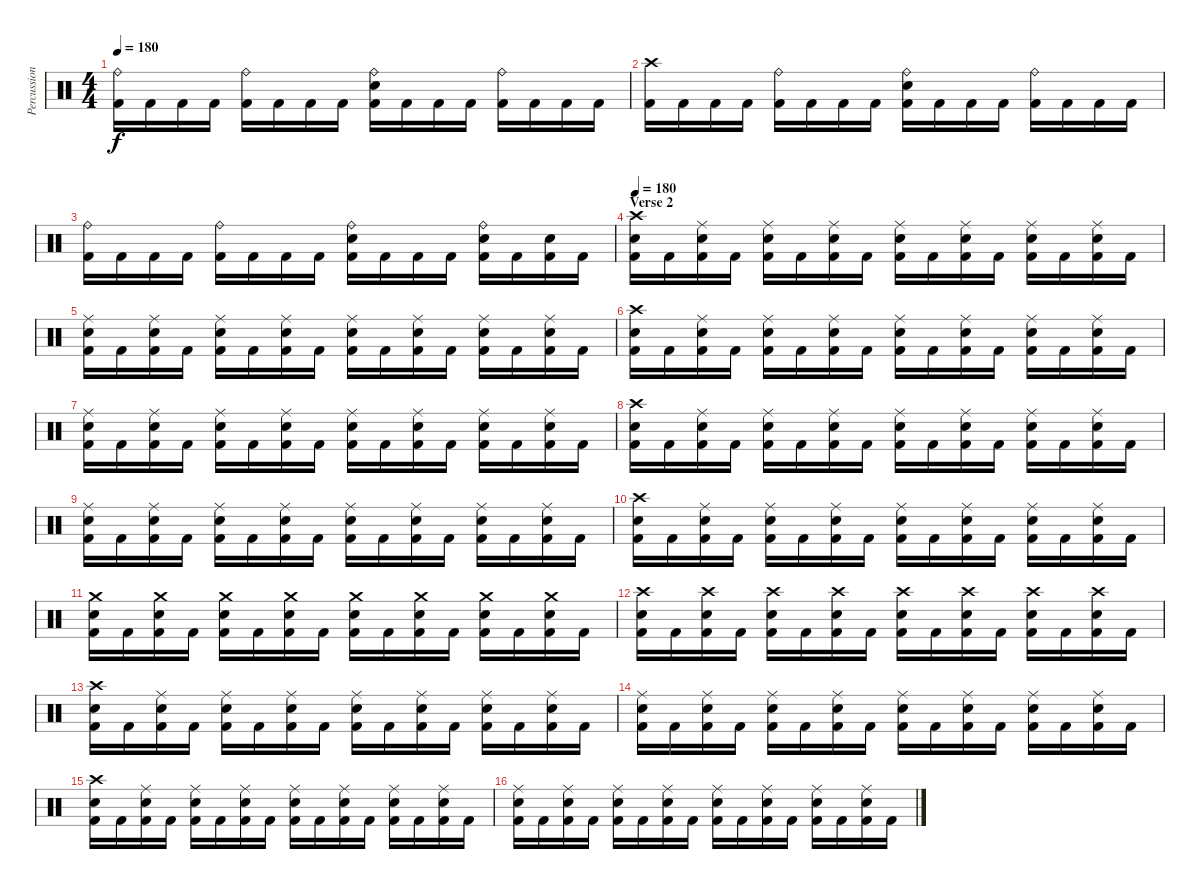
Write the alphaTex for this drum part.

\track ("Percussion" "Percussion") {instrument percussion}
\staff {score}
\articulation defaults
\ts (4 4)
\tempo 180
\clef neutral
\ks c
("Ride (bell)" "Kick (hit) 2").16{dy f} "Kick (hit) 2".16 "Kick (hit) 2".16 "Kick (hit) 2".16 ("Ride (bell)" "Kick (hit) 2").16 "Kick (hit) 2".16 "Kick (hit) 2".16 "Kick (hit) 2".16 ("Ride (bell)" "Snare (hit) 2" "Kick (hit) 2").16 "Kick (hit) 2".16 "Kick (hit) 2".16 "Kick (hit) 2".16 ("Ride (bell)" "Kick (hit) 2").16 "Kick (hit) 2".16 "Kick (hit) 2".16 "Kick (hit) 2".16 |
("Crash high (hit)" "Kick (hit) 2").16 "Kick (hit) 2".16 "Kick (hit) 2".16 "Kick (hit) 2".16 ("Ride (bell)" "Kick (hit) 2").16 "Kick (hit) 2".16 "Kick (hit) 2".16 "Kick (hit) 2".16 ("Ride (bell)" "Snare (hit) 2" "Kick (hit) 2").16 "Kick (hit) 2".16 "Kick (hit) 2".16 "Kick (hit) 2".16 ("Ride (bell)" "Kick (hit) 2").16 "Kick (hit) 2".16 "Kick (hit) 2".16 "Kick (hit) 2".16 |
("Ride (bell)" "Kick (hit) 2").16 "Kick (hit) 2".16 "Kick (hit) 2".16 "Kick (hit) 2".16 ("Ride (bell)" "Kick (hit) 2").16 "Kick (hit) 2".16 "Kick (hit) 2".16 "Kick (hit) 2".16 ("Ride (bell)" "Snare (hit) 2" "Kick (hit) 2").16 "Kick (hit) 2".16 "Kick (hit) 2".16 "Kick (hit) 2".16 ("Ride (bell)" "Snare (hit) 2" "Kick (hit) 2").16 "Kick (hit) 2".16 ("Snare (hit) 2" "Kick (hit) 2").16 "Kick (hit) 2".16 |
\section ("" "Verse 2")
\tempo 180
("Crash high (hit)" "Snare (hit) 2" "Kick (hit) 2").16 "Kick (hit) 2".16 ("Ride (middle)" "Snare (hit) 2" "Kick (hit) 2").16 "Kick (hit) 2".16 ("Ride (middle)" "Snare (hit) 2" "Kick (hit) 2").16 "Kick (hit) 2".16 ("Ride (middle)" "Snare (hit) 2" "Kick (hit) 2").16 "Kick (hit) 2".16 ("Ride (middle)" "Snare (hit) 2" "Kick (hit) 2").16 "Kick (hit) 2".16 ("Ride (middle)" "Snare (hit) 2" "Kick (hit) 2").16 "Kick (hit) 2".16 ("Ride (middle)" "Snare (hit) 2" "Kick (hit) 2").16 "Kick (hit) 2".16 ("Ride (middle)" "Snare (hit) 2" "Kick (hit) 2").16 "Kick (hit) 2".16 |
("Ride (middle)" "Snare (hit) 2" "Kick (hit) 2").16 "Kick (hit) 2".16 ("Ride (middle)" "Snare (hit) 2" "Kick (hit) 2").16 "Kick (hit) 2".16 ("Ride (middle)" "Snare (hit) 2" "Kick (hit) 2").16 "Kick (hit) 2".16 ("Ride (middle)" "Snare (hit) 2" "Kick (hit) 2").16 "Kick (hit) 2".16 ("Ride (middle)" "Snare (hit) 2" "Kick (hit) 2").16 "Kick (hit) 2".16 ("Ride (middle)" "Snare (hit) 2" "Kick (hit) 2").16 "Kick (hit) 2".16 ("Ride (middle)" "Snare (hit) 2" "Kick (hit) 2").16 "Kick (hit) 2".16 ("Ride (middle)" "Snare (hit) 2" "Kick (hit) 2").16 "Kick (hit) 2".16 |
("Crash high (hit)" "Snare (hit) 2" "Kick (hit) 2").16 "Kick (hit) 2".16 ("Ride (middle)" "Snare (hit) 2" "Kick (hit) 2").16 "Kick (hit) 2".16 ("Ride (middle)" "Snare (hit) 2" "Kick (hit) 2").16 "Kick (hit) 2".16 ("Ride (middle)" "Snare (hit) 2" "Kick (hit) 2").16 "Kick (hit) 2".16 ("Ride (middle)" "Snare (hit) 2" "Kick (hit) 2").16 "Kick (hit) 2".16 ("Ride (middle)" "Snare (hit) 2" "Kick (hit) 2").16 "Kick (hit) 2".16 ("Ride (middle)" "Snare (hit) 2" "Kick (hit) 2").16 "Kick (hit) 2".16 ("Ride (middle)" "Snare (hit) 2" "Kick (hit) 2").16 "Kick (hit) 2".16 |
("Ride (middle)" "Snare (hit) 2" "Kick (hit) 2").16 "Kick (hit) 2".16 ("Ride (middle)" "Snare (hit) 2" "Kick (hit) 2").16 "Kick (hit) 2".16 ("Ride (middle)" "Snare (hit) 2" "Kick (hit) 2").16 "Kick (hit) 2".16 ("Ride (middle)" "Snare (hit) 2" "Kick (hit) 2").16 "Kick (hit) 2".16 ("Ride (middle)" "Snare (hit) 2" "Kick (hit) 2").16 "Kick (hit) 2".16 ("Ride (middle)" "Snare (hit) 2" "Kick (hit) 2").16 "Kick (hit) 2".16 ("Ride (middle)" "Snare (hit) 2" "Kick (hit) 2").16 "Kick (hit) 2".16 ("Ride (middle)" "Snare (hit) 2" "Kick (hit) 2").16 "Kick (hit) 2".16 |
("Crash high (hit)" "Snare (hit) 2" "Kick (hit) 2").16 "Kick (hit) 2".16 ("Ride (middle)" "Snare (hit) 2" "Kick (hit) 2").16 "Kick (hit) 2".16 ("Ride (middle)" "Snare (hit) 2" "Kick (hit) 2").16 "Kick (hit) 2".16 ("Ride (middle)" "Snare (hit) 2" "Kick (hit) 2").16 "Kick (hit) 2".16 ("Ride (middle)" "Snare (hit) 2" "Kick (hit) 2").16 "Kick (hit) 2".16 ("Ride (middle)" "Snare (hit) 2" "Kick (hit) 2").16 "Kick (hit) 2".16 ("Ride (middle)" "Snare (hit) 2" "Kick (hit) 2").16 "Kick (hit) 2".16 ("Ride (middle)" "Snare (hit) 2" "Kick (hit) 2").16 "Kick (hit) 2".16 |
("Ride (middle)" "Snare (hit) 2" "Kick (hit) 2").16 "Kick (hit) 2".16 ("Ride (middle)" "Snare (hit) 2" "Kick (hit) 2").16 "Kick (hit) 2".16 ("Ride (middle)" "Snare (hit) 2" "Kick (hit) 2").16 "Kick (hit) 2".16 ("Ride (middle)" "Snare (hit) 2" "Kick (hit) 2").16 "Kick (hit) 2".16 ("Ride (middle)" "Snare (hit) 2" "Kick (hit) 2").16 "Kick (hit) 2".16 ("Ride (middle)" "Snare (hit) 2" "Kick (hit) 2").16 "Kick (hit) 2".16 ("Ride (middle)" "Snare (hit) 2" "Kick (hit) 2").16 "Kick (hit) 2".16 ("Ride (middle)" "Snare (hit) 2" "Kick (hit) 2").16 "Kick (hit) 2".16 |
("Crash high (hit)" "Snare (hit) 2" "Kick (hit) 2").16 "Kick (hit) 2".16 ("Ride (middle)" "Snare (hit) 2" "Kick (hit) 2").16 "Kick (hit) 2".16 ("Ride (middle)" "Snare (hit) 2" "Kick (hit) 2").16 "Kick (hit) 2".16 ("Ride (middle)" "Snare (hit) 2" "Kick (hit) 2").16 "Kick (hit) 2".16 ("Ride (middle)" "Snare (hit) 2" "Kick (hit) 2").16 "Kick (hit) 2".16 ("Ride (middle)" "Snare (hit) 2" "Kick (hit) 2").16 "Kick (hit) 2".16 ("Ride (middle)" "Snare (hit) 2" "Kick (hit) 2").16 "Kick (hit) 2".16 ("Ride (middle)" "Snare (hit) 2" "Kick (hit) 2").16 "Kick (hit) 2".16 |
("Crash medium (hit)" "Snare (hit) 2" "Kick (hit) 2").16 "Kick (hit) 2".16 ("Crash medium (hit)" "Snare (hit) 2" "Kick (hit) 2").16 "Kick (hit) 2".16 ("Crash medium (hit)" "Snare (hit) 2" "Kick (hit) 2").16 "Kick (hit) 2".16 ("Crash medium (hit)" "Snare (hit) 2" "Kick (hit) 2").16 "Kick (hit) 2".16 ("Crash medium (hit)" "Snare (hit) 2" "Kick (hit) 2").16 "Kick (hit) 2".16 ("Crash medium (hit)" "Snare (hit) 2" "Kick (hit) 2").16 "Kick (hit) 2".16 ("Crash medium (hit)" "Snare (hit) 2" "Kick (hit) 2").16 "Kick (hit) 2".16 ("Crash medium (hit)" "Snare (hit) 2" "Kick (hit) 2").16 "Kick (hit) 2".16 |
("Crash high (hit)" "Snare (hit) 2" "Kick (hit) 2").16 "Kick (hit) 2".16 ("Crash high (hit)" "Snare (hit) 2" "Kick (hit) 2").16 "Kick (hit) 2".16 ("Crash high (hit)" "Snare (hit) 2" "Kick (hit) 2").16 "Kick (hit) 2".16 ("Crash high (hit)" "Snare (hit) 2" "Kick (hit) 2").16 "Kick (hit) 2".16 ("Crash high (hit)" "Snare (hit) 2" "Kick (hit) 2").16 "Kick (hit) 2".16 ("Crash high (hit)" "Snare (hit) 2" "Kick (hit) 2").16 "Kick (hit) 2".16 ("Crash high (hit)" "Snare (hit) 2" "Kick (hit) 2").16 "Kick (hit) 2".16 ("Crash high (hit)" "Snare (hit) 2" "Kick (hit) 2").16 "Kick (hit) 2".16 |
("Crash high (hit)" "Snare (hit) 2" "Kick (hit) 2").16 "Kick (hit) 2".16 ("Ride (middle)" "Snare (hit) 2" "Kick (hit) 2").16 "Kick (hit) 2".16 ("Ride (middle)" "Snare (hit) 2" "Kick (hit) 2").16 "Kick (hit) 2".16 ("Ride (middle)" "Snare (hit) 2" "Kick (hit) 2").16 "Kick (hit) 2".16 ("Ride (middle)" "Snare (hit) 2" "Kick (hit) 2").16 "Kick (hit) 2".16 ("Ride (middle)" "Snare (hit) 2" "Kick (hit) 2").16 "Kick (hit) 2".16 ("Ride (middle)" "Snare (hit) 2" "Kick (hit) 2").16 "Kick (hit) 2".16 ("Ride (middle)" "Snare (hit) 2" "Kick (hit) 2").16 "Kick (hit) 2".16 |
("Ride (middle)" "Snare (hit) 2" "Kick (hit) 2").16 "Kick (hit) 2".16 ("Ride (middle)" "Snare (hit) 2" "Kick (hit) 2").16 "Kick (hit) 2".16 ("Ride (middle)" "Snare (hit) 2" "Kick (hit) 2").16 "Kick (hit) 2".16 ("Ride (middle)" "Snare (hit) 2" "Kick (hit) 2").16 "Kick (hit) 2".16 ("Ride (middle)" "Snare (hit) 2" "Kick (hit) 2").16 "Kick (hit) 2".16 ("Ride (middle)" "Snare (hit) 2" "Kick (hit) 2").16 "Kick (hit) 2".16 ("Ride (middle)" "Snare (hit) 2" "Kick (hit) 2").16 "Kick (hit) 2".16 ("Ride (middle)" "Snare (hit) 2" "Kick (hit) 2").16 "Kick (hit) 2".16 |
("Crash high (hit)" "Snare (hit) 2" "Kick (hit) 2").16 "Kick (hit) 2".16 ("Ride (middle)" "Snare (hit) 2" "Kick (hit) 2").16 "Kick (hit) 2".16 ("Ride (middle)" "Snare (hit) 2" "Kick (hit) 2").16 "Kick (hit) 2".16 ("Ride (middle)" "Snare (hit) 2" "Kick (hit) 2").16 "Kick (hit) 2".16 ("Ride (middle)" "Snare (hit) 2" "Kick (hit) 2").16 "Kick (hit) 2".16 ("Ride (middle)" "Snare (hit) 2" "Kick (hit) 2").16 "Kick (hit) 2".16 ("Ride (middle)" "Snare (hit) 2" "Kick (hit) 2").16 "Kick (hit) 2".16 ("Ride (middle)" "Snare (hit) 2" "Kick (hit) 2").16 "Kick (hit) 2".16 |
("Ride (middle)" "Snare (hit) 2" "Kick (hit) 2").16 "Kick (hit) 2".16 ("Ride (middle)" "Snare (hit) 2" "Kick (hit) 2").16 "Kick (hit) 2".16 ("Ride (middle)" "Snare (hit) 2" "Kick (hit) 2").16 "Kick (hit) 2".16 ("Ride (middle)" "Snare (hit) 2" "Kick (hit) 2").16 "Kick (hit) 2".16 ("Ride (middle)" "Snare (hit) 2" "Kick (hit) 2").16 "Kick (hit) 2".16 ("Ride (middle)" "Snare (hit) 2" "Kick (hit) 2").16 "Kick (hit) 2".16 ("Ride (middle)" "Snare (hit) 2" "Kick (hit) 2").16 "Kick (hit) 2".16 ("Ride (middle)" "Snare (hit) 2" "Kick (hit) 2").16 "Kick (hit) 2".16
